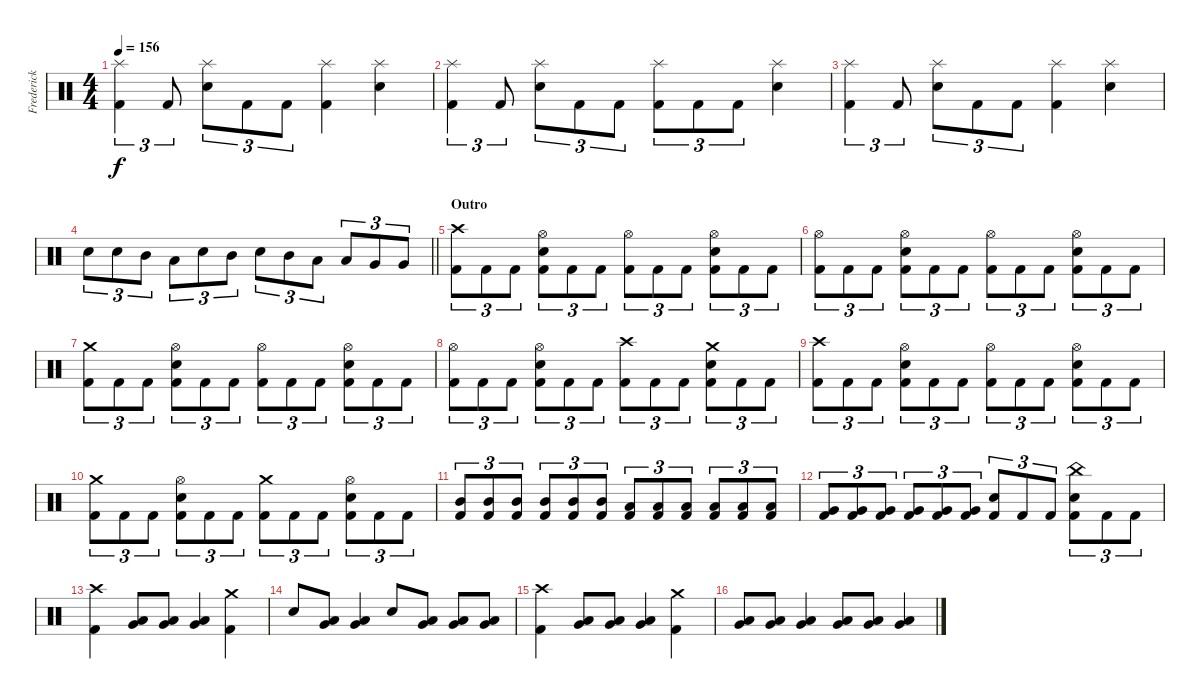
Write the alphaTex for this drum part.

\track ("Frederick Ehmke" "Frederick ") {instrument percussion}
\staff {score}
\articulation defaults
\ts (4 4)
\tempo 156
\clef neutral
\ks c
("Splash (hit)" "Kick (hit) 2").4{tu (3 2) dy f} "Kick (hit) 2".8{tu (3 2)} ("Splash (hit)" "Electric Snare (hit)").8{tu (3 2)} "Kick (hit) 2".8{tu (3 2)} "Kick (hit) 2".8{tu (3 2)} ("Splash (hit)" "Kick (hit) 2").4 ("Splash (hit)" "Electric Snare (hit)").4 |
("Splash (hit)" "Kick (hit) 2").4{tu (3 2)} "Kick (hit) 2".8{tu (3 2)} ("Splash (hit)" "Electric Snare (hit)").8{tu (3 2)} "Kick (hit) 2".8{tu (3 2)} "Kick (hit) 2".8{tu (3 2)} ("Splash (hit)" "Kick (hit) 2").8{tu (3 2)} "Kick (hit) 2".8{tu (3 2)} "Kick (hit) 2".8{tu (3 2)} ("Splash (hit)" "Electric Snare (hit)").4 |
("Splash (hit)" "Kick (hit) 2").4{tu (3 2)} "Kick (hit) 2".8{tu (3 2)} ("Splash (hit)" "Electric Snare (hit)").8{tu (3 2)} "Kick (hit) 2".8{tu (3 2)} "Kick (hit) 2".8{tu (3 2)} ("Splash (hit)" "Kick (hit) 2").4 ("Splash (hit)" "Electric Snare (hit)").4 |
\barLineRight lightlight "Electric Snare (hit)".8{tu (3 2)} "Electric Snare (hit)".8{tu (3 2)} "Mid Tom (hit)".8{tu (3 2)} "Low Tom (hit)".8{tu (3 2)} "Electric Snare (hit)".8{tu (3 2)} "Mid Tom (hit)".8{tu (3 2)} "Electric Snare (hit)".8{tu (3 2)} "Mid Tom (hit)".8{tu (3 2)} "Low Tom (hit)".8{tu (3 2)} "Low Tom (hit)".8{tu (3 2)} "Very Low Tom (hit)".8{tu (3 2)} "Very Low Tom (hit)".8{tu (3 2)}
|
\section ("" "Outro")
("Crash high (hit)" "Kick (hit) 2").8{tu (3 2)} "Kick (hit) 2".8{tu (3 2)} "Kick (hit) 2".8{tu (3 2)} ("Hi-Hat (open)" "Kick (hit) 2" "Electric Snare (hit)").8{tu (3 2)} "Kick (hit) 2".8{tu (3 2)} "Kick (hit) 2".8{tu (3 2)} ("Hi-Hat (open)" "Kick (hit) 2").8{tu (3 2)} "Kick (hit) 2".8{tu (3 2)} "Kick (hit) 2".8{tu (3 2)} ("Hi-Hat (open)" "Kick (hit) 2" "Electric Snare (hit)").8{tu (3 2)} "Kick (hit) 2".8{tu (3 2)} "Kick (hit) 2".8{tu (3 2)} |
("Hi-Hat (open)" "Kick (hit) 2").8{tu (3 2)} "Kick (hit) 2".8{tu (3 2)} "Kick (hit) 2".8{tu (3 2)} ("Hi-Hat (open)" "Kick (hit) 2" "Electric Snare (hit)").8{tu (3 2)} "Kick (hit) 2".8{tu (3 2)} "Kick (hit) 2".8{tu (3 2)} ("Hi-Hat (open)" "Kick (hit) 2").8{tu (3 2)} "Kick (hit) 2".8{tu (3 2)} "Kick (hit) 2".8{tu (3 2)} ("Hi-Hat (open)" "Kick (hit) 2" "Electric Snare (hit)").8{tu (3 2)} "Kick (hit) 2".8{tu (3 2)} "Kick (hit) 2".8{tu (3 2)} |
("Crash medium (hit)" "Kick (hit) 2").8{tu (3 2)} "Kick (hit) 2".8{tu (3 2)} "Kick (hit) 2".8{tu (3 2)} ("Hi-Hat (open)" "Kick (hit) 2" "Electric Snare (hit)").8{tu (3 2)} "Kick (hit) 2".8{tu (3 2)} "Kick (hit) 2".8{tu (3 2)} ("Hi-Hat (open)" "Kick (hit) 2").8{tu (3 2)} "Kick (hit) 2".8{tu (3 2)} "Kick (hit) 2".8{tu (3 2)} ("Hi-Hat (open)" "Kick (hit) 2" "Electric Snare (hit)").8{tu (3 2)} "Kick (hit) 2".8{tu (3 2)} "Kick (hit) 2".8{tu (3 2)} |
("Hi-Hat (open)" "Kick (hit) 2").8{tu (3 2)} "Kick (hit) 2".8{tu (3 2)} "Kick (hit) 2".8{tu (3 2)} ("Hi-Hat (open)" "Kick (hit) 2" "Electric Snare (hit)").8{tu (3 2)} "Kick (hit) 2".8{tu (3 2)} "Kick (hit) 2".8{tu (3 2)} ("Crash high (hit)" "Kick (hit) 2").8{tu (3 2)} "Kick (hit) 2".8{tu (3 2)} "Kick (hit) 2".8{tu (3 2)} ("Crash medium (hit)" "Kick (hit) 2" "Electric Snare (hit)").8{tu (3 2)} "Kick (hit) 2".8{tu (3 2)} "Kick (hit) 2".8{tu (3 2)} |
("Crash high (hit)" "Kick (hit) 2").8{tu (3 2)} "Kick (hit) 2".8{tu (3 2)} "Kick (hit) 2".8{tu (3 2)} ("Hi-Hat (open)" "Kick (hit) 2" "Electric Snare (hit)").8{tu (3 2)} "Kick (hit) 2".8{tu (3 2)} "Kick (hit) 2".8{tu (3 2)} ("Hi-Hat (open)" "Kick (hit) 2").8{tu (3 2)} "Kick (hit) 2".8{tu (3 2)} "Kick (hit) 2".8{tu (3 2)} ("Hi-Hat (open)" "Kick (hit) 2" "Electric Snare (hit)").8{tu (3 2)} "Kick (hit) 2".8{tu (3 2)} "Kick (hit) 2".8{tu (3 2)} |
("Crash medium (hit)" "Kick (hit) 2").8{tu (3 2)} "Kick (hit) 2".8{tu (3 2)} "Kick (hit) 2".8{tu (3 2)} ("Hi-Hat (open)" "Kick (hit) 2" "Electric Snare (hit)").8{tu (3 2)} "Kick (hit) 2".8{tu (3 2)} "Kick (hit) 2".8{tu (3 2)} ("Crash medium (hit)" "Kick (hit) 2").8{tu (3 2)} "Kick (hit) 2".8{tu (3 2)} "Kick (hit) 2".8{tu (3 2)} ("Hi-Hat (open)" "Kick (hit) 2" "Electric Snare (hit)").8{tu (3 2)} "Kick (hit) 2".8{tu (3 2)} "Kick (hit) 2".8{tu (3 2)} |
("Kick (hit) 2" "Mid Tom (hit)").8{tu (3 2)} ("Kick (hit) 2" "Mid Tom (hit)").8{tu (3 2)} ("Kick (hit) 2" "Mid Tom (hit)").8{tu (3 2)} ("Kick (hit) 2" "Mid Tom (hit)").8{tu (3 2)} ("Kick (hit) 2" "Mid Tom (hit)").8{tu (3 2)} ("Kick (hit) 2" "Mid Tom (hit)").8{tu (3 2)} ("Kick (hit) 2" "Low Tom (hit)").8{tu (3 2)} ("Kick (hit) 2" "Low Tom (hit)").8{tu (3 2)} ("Kick (hit) 2" "Low Tom (hit)").8{tu (3 2)} ("Kick (hit) 2" "Low Tom (hit)").8{tu (3 2)} ("Kick (hit) 2" "Low Tom (hit)").8{tu (3 2)} ("Kick (hit) 2" "Low Tom (hit)").8{tu (3 2)} |
("Kick (hit) 2" "Very Low Tom (hit)").8{tu (3 2)} ("Kick (hit) 2" "Very Low Tom (hit)").8{tu (3 2)} ("Kick (hit) 2" "Very Low Tom (hit)").8{tu (3 2)} ("Kick (hit) 2" "Very Low Tom (hit)").8{tu (3 2)} ("Kick (hit) 2" "Very Low Tom (hit)").8{tu (3 2)} ("Kick (hit) 2" "Very Low Tom (hit)").8{tu (3 2)} ("Kick (hit) 2" "Electric Snare (hit)").8{tu (3 2)} "Kick (hit) 2".8{tu (3 2)} "Kick (hit) 2".8{tu (3 2)} ("China (hit)" "Kick (hit) 2" "Electric Snare (hit)").8{tu (3 2)} "Kick (hit) 2".8{tu (3 2)} "Kick (hit) 2".8{tu (3 2)} |
("Crash high (hit)" "Kick (hit) 2").4 ("Low Tom (hit)" "Very Low Tom (hit)").8 ("Low Tom (hit)" "Very Low Tom (hit)").8 ("Low Tom (hit)" "Very Low Tom (hit)").4 ("Crash medium (hit)" "Kick (hit) 2").4 |
"Electric Snare (hit)".8 ("Low Tom (hit)" "Very Low Tom (hit)").8 ("Low Tom (hit)" "Very Low Tom (hit)").4 "Electric Snare (hit)".8 ("Very Low Tom (hit)" "Low Floor Tom (hit)").8 ("Very Low Tom (hit)" "Low Floor Tom (hit)").8 ("Very Low Tom (hit)" "Low Floor Tom (hit)").8 |
("Crash high (hit)" "Kick (hit) 2").4 ("Low Tom (hit)" "Very Low Tom (hit)").8 ("Low Tom (hit)" "Very Low Tom (hit)").8 ("Low Tom (hit)" "Very Low Tom (hit)").4 ("Crash medium (hit)" "Kick (hit) 2").4 |
("Low Tom (hit)" "Very Low Tom (hit)").8 ("Low Tom (hit)" "Very Low Tom (hit)").8 ("Low Tom (hit)" "Very Low Tom (hit)").4 ("Very Low Tom (hit)" "Low Floor Tom (hit)").8 ("Very Low Tom (hit)" "Low Floor Tom (hit)").8 ("Very Low Tom (hit)" "Low Floor Tom (hit)").4
